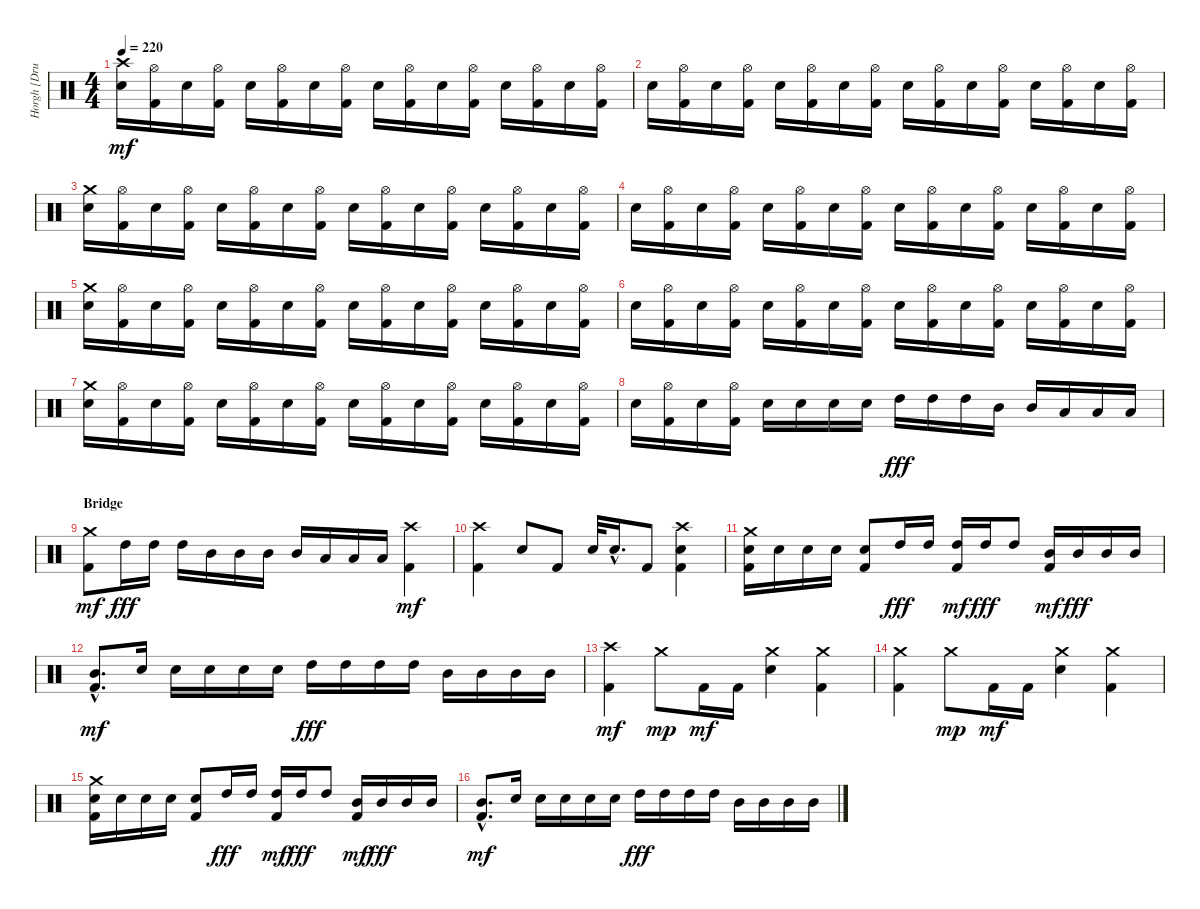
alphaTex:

\track ("Horgh [Drums]" "Horgh [Dru") {instrument percussion}
\staff {score}
\articulation defaults
\ts (4 4)
\tempo 220
\clef neutral
\ks c
("Crash high (hit)" "Electric Snare (hit)").16{dy mf} ("Hi-Hat (open)" "Kick (hit) 2").16 "Electric Snare (hit)".16 ("Hi-Hat (open)" "Kick (hit) 2").16 "Electric Snare (hit)".16 ("Hi-Hat (open)" "Kick (hit) 2").16 "Electric Snare (hit)".16 ("Hi-Hat (open)" "Kick (hit) 2").16 "Electric Snare (hit)".16 ("Hi-Hat (open)" "Kick (hit) 2").16 "Electric Snare (hit)".16 ("Hi-Hat (open)" "Kick (hit) 2").16 "Electric Snare (hit)".16 ("Hi-Hat (open)" "Kick (hit) 2").16 "Electric Snare (hit)".16 ("Hi-Hat (open)" "Kick (hit) 2").16 |
"Electric Snare (hit)".16 ("Hi-Hat (open)" "Kick (hit) 2").16 "Electric Snare (hit)".16 ("Hi-Hat (open)" "Kick (hit) 2").16 "Electric Snare (hit)".16 ("Hi-Hat (open)" "Kick (hit) 2").16 "Electric Snare (hit)".16 ("Hi-Hat (open)" "Kick (hit) 2").16 "Electric Snare (hit)".16 ("Hi-Hat (open)" "Kick (hit) 2").16 "Electric Snare (hit)".16 ("Hi-Hat (open)" "Kick (hit) 2").16 "Electric Snare (hit)".16 ("Hi-Hat (open)" "Kick (hit) 2").16 "Electric Snare (hit)".16 ("Hi-Hat (open)" "Kick (hit) 2").16 |
("Crash medium (hit)" "Electric Snare (hit)").16 ("Hi-Hat (open)" "Kick (hit) 2").16 "Electric Snare (hit)".16 ("Hi-Hat (open)" "Kick (hit) 2").16 "Electric Snare (hit)".16 ("Hi-Hat (open)" "Kick (hit) 2").16 "Electric Snare (hit)".16 ("Hi-Hat (open)" "Kick (hit) 2").16 "Electric Snare (hit)".16 ("Hi-Hat (open)" "Kick (hit) 2").16 "Electric Snare (hit)".16 ("Hi-Hat (open)" "Kick (hit) 2").16 "Electric Snare (hit)".16 ("Hi-Hat (open)" "Kick (hit) 2").16 "Electric Snare (hit)".16 ("Hi-Hat (open)" "Kick (hit) 2").16 |
"Electric Snare (hit)".16 ("Hi-Hat (open)" "Kick (hit) 2").16 "Electric Snare (hit)".16 ("Hi-Hat (open)" "Kick (hit) 2").16 "Electric Snare (hit)".16 ("Hi-Hat (open)" "Kick (hit) 2").16 "Electric Snare (hit)".16 ("Hi-Hat (open)" "Kick (hit) 2").16 "Electric Snare (hit)".16 ("Hi-Hat (open)" "Kick (hit) 2").16 "Electric Snare (hit)".16 ("Hi-Hat (open)" "Kick (hit) 2").16 "Electric Snare (hit)".16 ("Hi-Hat (open)" "Kick (hit) 2").16 "Electric Snare (hit)".16 ("Hi-Hat (open)" "Kick (hit) 2").16 |
("Crash medium (hit)" "Electric Snare (hit)").16 ("Hi-Hat (open)" "Kick (hit) 2").16 "Electric Snare (hit)".16 ("Hi-Hat (open)" "Kick (hit) 2").16 "Electric Snare (hit)".16 ("Hi-Hat (open)" "Kick (hit) 2").16 "Electric Snare (hit)".16 ("Hi-Hat (open)" "Kick (hit) 2").16 "Electric Snare (hit)".16 ("Hi-Hat (open)" "Kick (hit) 2").16 "Electric Snare (hit)".16 ("Hi-Hat (open)" "Kick (hit) 2").16 "Electric Snare (hit)".16 ("Hi-Hat (open)" "Kick (hit) 2").16 "Electric Snare (hit)".16 ("Hi-Hat (open)" "Kick (hit) 2").16 |
"Electric Snare (hit)".16 ("Hi-Hat (open)" "Kick (hit) 2").16 "Electric Snare (hit)".16 ("Hi-Hat (open)" "Kick (hit) 2").16 "Electric Snare (hit)".16 ("Hi-Hat (open)" "Kick (hit) 2").16 "Electric Snare (hit)".16 ("Hi-Hat (open)" "Kick (hit) 2").16 "Electric Snare (hit)".16 ("Hi-Hat (open)" "Kick (hit) 2").16 "Electric Snare (hit)".16 ("Hi-Hat (open)" "Kick (hit) 2").16 "Electric Snare (hit)".16 ("Hi-Hat (open)" "Kick (hit) 2").16 "Electric Snare (hit)".16 ("Hi-Hat (open)" "Kick (hit) 2").16 |
("Crash medium (hit)" "Electric Snare (hit)").16 ("Hi-Hat (open)" "Kick (hit) 2").16 "Electric Snare (hit)".16 ("Hi-Hat (open)" "Kick (hit) 2").16 "Electric Snare (hit)".16 ("Hi-Hat (open)" "Kick (hit) 2").16 "Electric Snare (hit)".16 ("Hi-Hat (open)" "Kick (hit) 2").16 "Electric Snare (hit)".16 ("Hi-Hat (open)" "Kick (hit) 2").16 "Electric Snare (hit)".16 ("Hi-Hat (open)" "Kick (hit) 2").16 "Electric Snare (hit)".16 ("Hi-Hat (open)" "Kick (hit) 2").16 "Electric Snare (hit)".16 ("Hi-Hat (open)" "Kick (hit) 2").16 |
"Electric Snare (hit)".16 ("Hi-Hat (open)" "Kick (hit) 2").16 "Electric Snare (hit)".16 ("Hi-Hat (open)" "Kick (hit) 2").16 "Electric Snare (hit)".16 "Electric Snare (hit)".16 "Electric Snare (hit)".16 "Electric Snare (hit)".16 "High Tom (hit)".16{dy fff} "High Tom (hit)".16 "High Tom (hit)".16 "Mid Tom (hit)".16 "Mid Tom (hit)".16 "Low Tom (hit)".16 "Low Tom (hit)".16 "Low Tom (hit)".16 |
\section ("" "Bridge")
("Crash medium (hit)" "Kick (hit) 2").8{dy mf} "High Tom (hit)".16{dy fff} "High Tom (hit)".16 "High Tom (hit)".16 "Mid Tom (hit)".16 "Mid Tom (hit)".16 "Mid Tom (hit)".16 "Mid Tom (hit)".16 "Low Tom (hit)".16 "Low Tom (hit)".16 "Low Tom (hit)".16 ("Crash high (hit)" "Kick (hit) 2").4{dy mf} |
("Crash high (hit)" "Kick (hit) 2").4 "Electric Snare (hit)".8 "Kick (hit) 2".8 "Electric Snare (hit)".32 "Electric Snare (hit)"{hac}.16{d} "Kick (hit) 2".8 ("Crash high (hit)" "Electric Snare (hit)" "Kick (hit) 2").4 |
("Crash medium (hit)" "Electric Snare (hit)" "Kick (hit) 2").16 "Electric Snare (hit)".16 "Electric Snare (hit)".16 "Electric Snare (hit)".16 ("Electric Snare (hit)" "Kick (hit) 2").8 "High Tom (hit)".16{dy fff} "High Tom (hit)".16 ("High Tom (hit)" "Kick (hit) 2").16{dy mf} "High Tom (hit)".16{dy fff} "High Tom (hit)".8 ("Mid Tom (hit)" "Kick (hit) 2").16{dy mf} "Mid Tom (hit)".16{dy fff} "Mid Tom (hit)".16 "Mid Tom (hit)".16 |
("Mid Tom (hit)"{hac} "Kick (hit) 2"{hac}).8{d dy mf} "Electric Snare (hit)".16 "Electric Snare (hit)".16 "Electric Snare (hit)".16 "Electric Snare (hit)".16 "Electric Snare (hit)".16 "High Tom (hit)".16{dy fff} "High Tom (hit)".16 "High Tom (hit)".16 "High Tom (hit)".16 "Mid Tom (hit)".16 "Mid Tom (hit)".16 "Mid Tom (hit)".16 "Mid Tom (hit)".16 |
("Crash high (hit)" "Kick (hit) 2").4{dy mf} "Crash medium (hit)".8{dy mp} "Kick (hit) 2".16{dy mf} "Kick (hit) 2".16 ("Crash medium (hit)" "Electric Snare (hit)").4 ("Crash medium (hit)" "Kick (hit) 2").4 |
("Crash medium (hit)" "Kick (hit) 2").4 "Crash medium (hit)".8{dy mp} "Kick (hit) 2".16{dy mf} "Kick (hit) 2".16 ("Crash medium (hit)" "Electric Snare (hit)").4 ("Crash medium (hit)" "Kick (hit) 2").4 |
("Crash medium (hit)" "Electric Snare (hit)" "Kick (hit) 2").16 "Electric Snare (hit)".16 "Electric Snare (hit)".16 "Electric Snare (hit)".16 ("Electric Snare (hit)" "Kick (hit) 2").8 "High Tom (hit)".16{dy fff} "High Tom (hit)".16 ("High Tom (hit)" "Kick (hit) 2").16{dy mf} "High Tom (hit)".16{dy fff} "High Tom (hit)".8 ("Mid Tom (hit)" "Kick (hit) 2").16{dy mf} "Mid Tom (hit)".16{dy fff} "Mid Tom (hit)".16 "Mid Tom (hit)".16 |
("Mid Tom (hit)"{hac} "Kick (hit) 2"{hac}).8{d dy mf} "Electric Snare (hit)".16 "Electric Snare (hit)".16 "Electric Snare (hit)".16 "Electric Snare (hit)".16 "Electric Snare (hit)".16 "High Tom (hit)".16{dy fff} "High Tom (hit)".16 "High Tom (hit)".16 "High Tom (hit)".16 "Mid Tom (hit)".16 "Mid Tom (hit)".16 "Mid Tom (hit)".16 "Mid Tom (hit)".16
